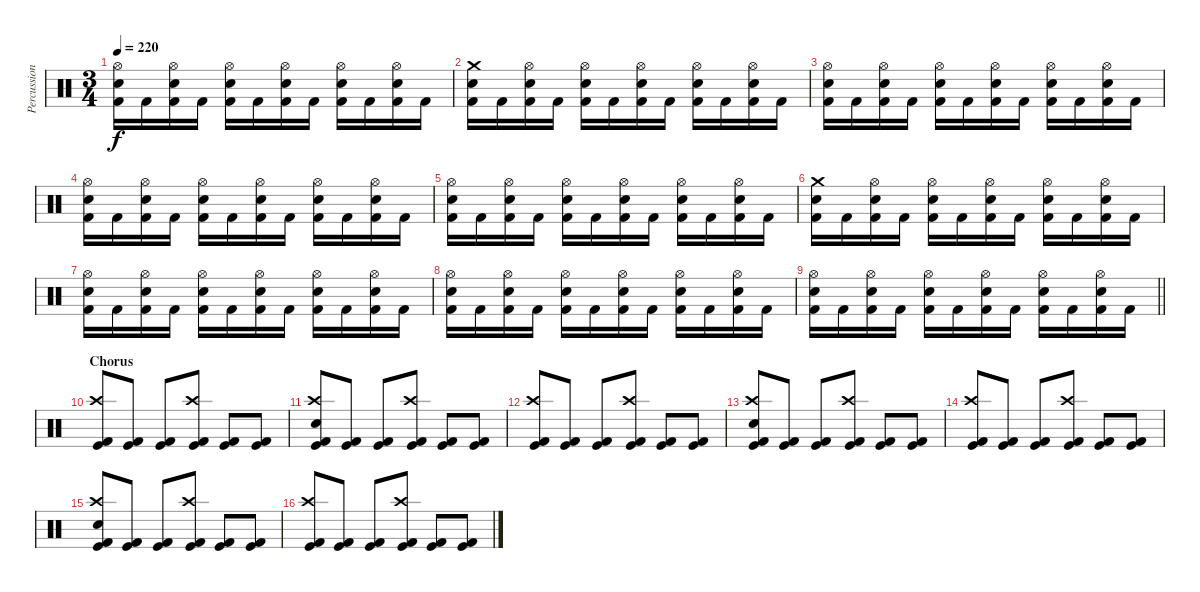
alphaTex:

\track ("Percussion" "Percussion") {instrument percussion}
\staff {score}
\articulation defaults
\ts (3 4)
\tempo 220
\clef neutral
\ks c
("Hi-Hat (open)" "Electric Snare (hit)" "Kick (hit) 2").16{dy f} "Kick (hit) 2".16 ("Hi-Hat (open)" "Electric Snare (hit)" "Kick (hit) 2").16 "Kick (hit) 2".16 ("Hi-Hat (open)" "Electric Snare (hit)" "Kick (hit) 2").16 "Kick (hit) 2".16 ("Hi-Hat (open)" "Electric Snare (hit)" "Kick (hit) 2").16 "Kick (hit) 2".16 ("Hi-Hat (open)" "Electric Snare (hit)" "Kick (hit) 2").16 "Kick (hit) 2".16 ("Hi-Hat (open)" "Electric Snare (hit)" "Kick (hit) 2").16 "Kick (hit) 2".16 |
("Crash medium (hit)" "Electric Snare (hit)" "Kick (hit) 2").16 "Kick (hit) 2".16 ("Hi-Hat (open)" "Electric Snare (hit)" "Kick (hit) 2").16 "Kick (hit) 2".16 ("Hi-Hat (open)" "Electric Snare (hit)" "Kick (hit) 2").16 "Kick (hit) 2".16 ("Hi-Hat (open)" "Electric Snare (hit)" "Kick (hit) 2").16 "Kick (hit) 2".16 ("Hi-Hat (open)" "Electric Snare (hit)" "Kick (hit) 2").16 "Kick (hit) 2".16 ("Hi-Hat (open)" "Electric Snare (hit)" "Kick (hit) 2").16 "Kick (hit) 2".16 |
("Hi-Hat (open)" "Electric Snare (hit)" "Kick (hit) 2").16 "Kick (hit) 2".16 ("Hi-Hat (open)" "Electric Snare (hit)" "Kick (hit) 2").16 "Kick (hit) 2".16 ("Hi-Hat (open)" "Electric Snare (hit)" "Kick (hit) 2").16 "Kick (hit) 2".16 ("Hi-Hat (open)" "Electric Snare (hit)" "Kick (hit) 2").16 "Kick (hit) 2".16 ("Hi-Hat (open)" "Electric Snare (hit)" "Kick (hit) 2").16 "Kick (hit) 2".16 ("Hi-Hat (open)" "Electric Snare (hit)" "Kick (hit) 2").16 "Kick (hit) 2".16 |
("Hi-Hat (open)" "Electric Snare (hit)" "Kick (hit) 2").16 "Kick (hit) 2".16 ("Hi-Hat (open)" "Electric Snare (hit)" "Kick (hit) 2").16 "Kick (hit) 2".16 ("Hi-Hat (open)" "Electric Snare (hit)" "Kick (hit) 2").16 "Kick (hit) 2".16 ("Hi-Hat (open)" "Electric Snare (hit)" "Kick (hit) 2").16 "Kick (hit) 2".16 ("Hi-Hat (open)" "Electric Snare (hit)" "Kick (hit) 2").16 "Kick (hit) 2".16 ("Hi-Hat (open)" "Electric Snare (hit)" "Kick (hit) 2").16 "Kick (hit) 2".16 |
("Hi-Hat (open)" "Electric Snare (hit)" "Kick (hit) 2").16 "Kick (hit) 2".16 ("Hi-Hat (open)" "Electric Snare (hit)" "Kick (hit) 2").16 "Kick (hit) 2".16 ("Hi-Hat (open)" "Electric Snare (hit)" "Kick (hit) 2").16 "Kick (hit) 2".16 ("Hi-Hat (open)" "Electric Snare (hit)" "Kick (hit) 2").16 "Kick (hit) 2".16 ("Hi-Hat (open)" "Electric Snare (hit)" "Kick (hit) 2").16 "Kick (hit) 2".16 ("Hi-Hat (open)" "Electric Snare (hit)" "Kick (hit) 2").16 "Kick (hit) 2".16 |
("Crash medium (hit)" "Electric Snare (hit)" "Kick (hit) 2").16 "Kick (hit) 2".16 ("Hi-Hat (open)" "Electric Snare (hit)" "Kick (hit) 2").16 "Kick (hit) 2".16 ("Hi-Hat (open)" "Electric Snare (hit)" "Kick (hit) 2").16 "Kick (hit) 2".16 ("Hi-Hat (open)" "Electric Snare (hit)" "Kick (hit) 2").16 "Kick (hit) 2".16 ("Hi-Hat (open)" "Electric Snare (hit)" "Kick (hit) 2").16 "Kick (hit) 2".16 ("Hi-Hat (open)" "Electric Snare (hit)" "Kick (hit) 2").16 "Kick (hit) 2".16 |
("Hi-Hat (open)" "Electric Snare (hit)" "Kick (hit) 2").16 "Kick (hit) 2".16 ("Hi-Hat (open)" "Electric Snare (hit)" "Kick (hit) 2").16 "Kick (hit) 2".16 ("Hi-Hat (open)" "Electric Snare (hit)" "Kick (hit) 2").16 "Kick (hit) 2".16 ("Hi-Hat (open)" "Electric Snare (hit)" "Kick (hit) 2").16 "Kick (hit) 2".16 ("Hi-Hat (open)" "Electric Snare (hit)" "Kick (hit) 2").16 "Kick (hit) 2".16 ("Hi-Hat (open)" "Electric Snare (hit)" "Kick (hit) 2").16 "Kick (hit) 2".16 |
("Hi-Hat (open)" "Electric Snare (hit)" "Kick (hit) 2").16 "Kick (hit) 2".16 ("Hi-Hat (open)" "Electric Snare (hit)" "Kick (hit) 2").16 "Kick (hit) 2".16 ("Hi-Hat (open)" "Electric Snare (hit)" "Kick (hit) 2").16 "Kick (hit) 2".16 ("Hi-Hat (open)" "Electric Snare (hit)" "Kick (hit) 2").16 "Kick (hit) 2".16 ("Hi-Hat (open)" "Electric Snare (hit)" "Kick (hit) 2").16 "Kick (hit) 2".16 ("Hi-Hat (open)" "Electric Snare (hit)" "Kick (hit) 2").16 "Kick (hit) 2".16 |
\barLineRight lightlight
("Hi-Hat (open)" "Electric Snare (hit)" "Kick (hit) 2").16 "Kick (hit) 2".16 ("Hi-Hat (open)" "Electric Snare (hit)" "Kick (hit) 2").16 "Kick (hit) 2".16 ("Hi-Hat (open)" "Electric Snare (hit)" "Kick (hit) 2").16 "Kick (hit) 2".16 ("Hi-Hat (open)" "Electric Snare (hit)" "Kick (hit) 2").16 "Kick (hit) 2".16 ("Hi-Hat (open)" "Electric Snare (hit)" "Kick (hit) 2").16 "Kick (hit) 2".16 ("Hi-Hat (open)" "Electric Snare (hit)" "Kick (hit) 2").16 "Kick (hit) 2".16 |
\section ("" "Chorus")
("Crash high (hit)" "Kick (hit)" "Kick (hit) 2").8 ("Kick (hit)" "Kick (hit) 2").8 ("Kick (hit)" "Kick (hit) 2").8 ("Crash high (hit)" "Kick (hit)" "Kick (hit) 2").8 ("Kick (hit)" "Kick (hit) 2").8 ("Kick (hit)" "Kick (hit) 2").8 |
("Crash high (hit)" "Electric Snare (hit)" "Kick (hit)" "Kick (hit) 2").8 ("Kick (hit)" "Kick (hit) 2").8 ("Kick (hit)" "Kick (hit) 2").8 ("Crash high (hit)" "Kick (hit)" "Kick (hit) 2").8 ("Kick (hit)" "Kick (hit) 2").8 ("Kick (hit)" "Kick (hit) 2").8 |
("Crash high (hit)" "Kick (hit)" "Kick (hit) 2").8 ("Kick (hit)" "Kick (hit) 2").8 ("Kick (hit)" "Kick (hit) 2").8 ("Crash high (hit)" "Kick (hit)" "Kick (hit) 2").8 ("Kick (hit)" "Kick (hit) 2").8 ("Kick (hit)" "Kick (hit) 2").8 |
("Crash high (hit)" "Electric Snare (hit)" "Kick (hit)" "Kick (hit) 2").8 ("Kick (hit)" "Kick (hit) 2").8 ("Kick (hit)" "Kick (hit) 2").8 ("Crash high (hit)" "Kick (hit)" "Kick (hit) 2").8 ("Kick (hit)" "Kick (hit) 2").8 ("Kick (hit)" "Kick (hit) 2").8 |
("Crash high (hit)" "Kick (hit)" "Kick (hit) 2").8 ("Kick (hit)" "Kick (hit) 2").8 ("Kick (hit)" "Kick (hit) 2").8 ("Crash high (hit)" "Kick (hit)" "Kick (hit) 2").8 ("Kick (hit)" "Kick (hit) 2").8 ("Kick (hit)" "Kick (hit) 2").8 |
("Crash high (hit)" "Electric Snare (hit)" "Kick (hit)" "Kick (hit) 2").8 ("Kick (hit)" "Kick (hit) 2").8 ("Kick (hit)" "Kick (hit) 2").8 ("Crash high (hit)" "Kick (hit)" "Kick (hit) 2").8 ("Kick (hit)" "Kick (hit) 2").8 ("Kick (hit)" "Kick (hit) 2").8 |
("Crash high (hit)" "Kick (hit)" "Kick (hit) 2").8 ("Kick (hit)" "Kick (hit) 2").8 ("Kick (hit)" "Kick (hit) 2").8 ("Crash high (hit)" "Kick (hit)" "Kick (hit) 2").8 ("Kick (hit)" "Kick (hit) 2").8 ("Kick (hit)" "Kick (hit) 2").8
